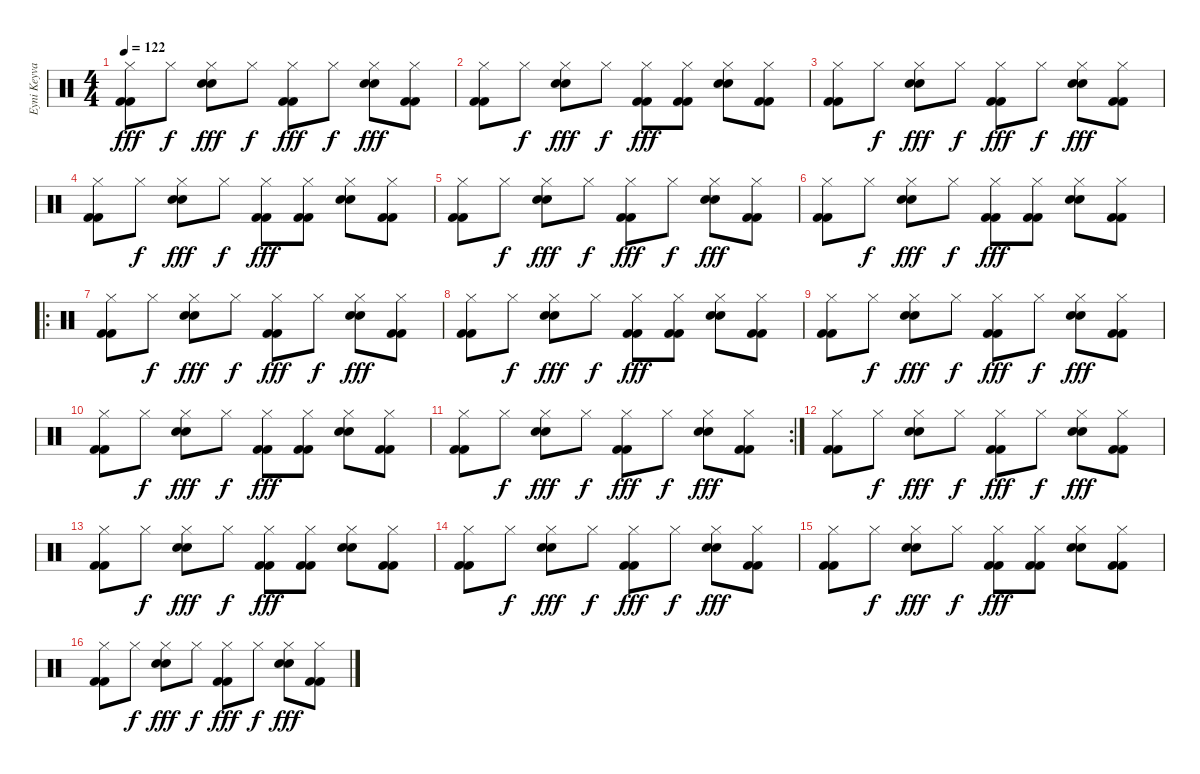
\track ("Eyni Keyvanshokoh" "Eyni Keyva") {instrument percussion}
\staff {score}
\articulation defaults
\ts (4 4)
\tempo 122
\clef neutral
\ks c
("Hi-Hat (closed)" "Kick (hit) 2" "Kick (hit) 2").8{dy fff} "Hi-Hat (closed)".8{dy f} ("Hi-Hat (closed)" "Electric Snare (hit)" "Electric Snare (hit)").8{dy fff} "Hi-Hat (closed)".8{dy f} ("Hi-Hat (closed)" "Kick (hit) 2" "Kick (hit) 2").8{dy fff} "Hi-Hat (closed)".8{dy f} ("Hi-Hat (closed)" "Electric Snare (hit)" "Electric Snare (hit)").8{dy fff} ("Hi-Hat (closed)" "Kick (hit) 2" "Kick (hit) 2").8 |
("Hi-Hat (closed)" "Kick (hit) 2" "Kick (hit) 2").8 "Hi-Hat (closed)".8{dy f} ("Hi-Hat (closed)" "Electric Snare (hit)" "Electric Snare (hit)").8{dy fff} "Hi-Hat (closed)".8{dy f} ("Hi-Hat (closed)" "Kick (hit) 2" "Kick (hit) 2").8{dy fff} ("Hi-Hat (closed)" "Kick (hit) 2" "Kick (hit) 2").8 ("Hi-Hat (closed)" "Electric Snare (hit)" "Electric Snare (hit)").8 ("Hi-Hat (closed)" "Kick (hit) 2" "Kick (hit) 2").8 |
("Hi-Hat (closed)" "Kick (hit) 2" "Kick (hit) 2").8 "Hi-Hat (closed)".8{dy f} ("Hi-Hat (closed)" "Electric Snare (hit)" "Electric Snare (hit)").8{dy fff} "Hi-Hat (closed)".8{dy f} ("Hi-Hat (closed)" "Kick (hit) 2" "Kick (hit) 2").8{dy fff} "Hi-Hat (closed)".8{dy f} ("Hi-Hat (closed)" "Electric Snare (hit)" "Electric Snare (hit)").8{dy fff} ("Hi-Hat (closed)" "Kick (hit) 2" "Kick (hit) 2").8 |
("Hi-Hat (closed)" "Kick (hit) 2" "Kick (hit) 2").8 "Hi-Hat (closed)".8{dy f} ("Hi-Hat (closed)" "Electric Snare (hit)" "Electric Snare (hit)").8{dy fff} "Hi-Hat (closed)".8{dy f} ("Hi-Hat (closed)" "Kick (hit) 2" "Kick (hit) 2").8{dy fff} ("Hi-Hat (closed)" "Kick (hit) 2" "Kick (hit) 2").8 ("Hi-Hat (closed)" "Electric Snare (hit)" "Electric Snare (hit)").8 ("Hi-Hat (closed)" "Kick (hit) 2" "Kick (hit) 2").8 |
("Hi-Hat (closed)" "Kick (hit) 2" "Kick (hit) 2").8 "Hi-Hat (closed)".8{dy f} ("Hi-Hat (closed)" "Electric Snare (hit)" "Electric Snare (hit)").8{dy fff} "Hi-Hat (closed)".8{dy f} ("Hi-Hat (closed)" "Kick (hit) 2" "Kick (hit) 2").8{dy fff} "Hi-Hat (closed)".8{dy f} ("Hi-Hat (closed)" "Electric Snare (hit)" "Electric Snare (hit)").8{dy fff} ("Hi-Hat (closed)" "Kick (hit) 2" "Kick (hit) 2").8 |
("Hi-Hat (closed)" "Kick (hit) 2" "Kick (hit) 2").8 "Hi-Hat (closed)".8{dy f} ("Hi-Hat (closed)" "Electric Snare (hit)" "Electric Snare (hit)").8{dy fff} "Hi-Hat (closed)".8{dy f} ("Hi-Hat (closed)" "Kick (hit) 2" "Kick (hit) 2").8{dy fff} ("Hi-Hat (closed)" "Kick (hit) 2" "Kick (hit) 2").8 ("Hi-Hat (closed)" "Electric Snare (hit)" "Electric Snare (hit)").8 ("Hi-Hat (closed)" "Kick (hit) 2" "Kick (hit) 2").8 |
\ro
("Hi-Hat (closed)" "Kick (hit) 2" "Kick (hit) 2").8 "Hi-Hat (closed)".8{dy f} ("Hi-Hat (closed)" "Electric Snare (hit)" "Electric Snare (hit)").8{dy fff} "Hi-Hat (closed)".8{dy f} ("Hi-Hat (closed)" "Kick (hit) 2" "Kick (hit) 2").8{dy fff} "Hi-Hat (closed)".8{dy f} ("Hi-Hat (closed)" "Electric Snare (hit)" "Electric Snare (hit)").8{dy fff} ("Hi-Hat (closed)" "Kick (hit) 2" "Kick (hit) 2").8 |
("Hi-Hat (closed)" "Kick (hit) 2" "Kick (hit) 2").8 "Hi-Hat (closed)".8{dy f} ("Hi-Hat (closed)" "Electric Snare (hit)" "Electric Snare (hit)").8{dy fff} "Hi-Hat (closed)".8{dy f} ("Hi-Hat (closed)" "Kick (hit) 2" "Kick (hit) 2").8{dy fff} ("Hi-Hat (closed)" "Kick (hit) 2" "Kick (hit) 2").8 ("Hi-Hat (closed)" "Electric Snare (hit)" "Electric Snare (hit)").8 ("Hi-Hat (closed)" "Kick (hit) 2" "Kick (hit) 2").8 |
("Hi-Hat (closed)" "Kick (hit) 2" "Kick (hit) 2").8 "Hi-Hat (closed)".8{dy f} ("Hi-Hat (closed)" "Electric Snare (hit)" "Electric Snare (hit)").8{dy fff} "Hi-Hat (closed)".8{dy f} ("Hi-Hat (closed)" "Kick (hit) 2" "Kick (hit) 2").8{dy fff} "Hi-Hat (closed)".8{dy f} ("Hi-Hat (closed)" "Electric Snare (hit)" "Electric Snare (hit)").8{dy fff} ("Hi-Hat (closed)" "Kick (hit) 2" "Kick (hit) 2").8 |
("Hi-Hat (closed)" "Kick (hit) 2" "Kick (hit) 2").8 "Hi-Hat (closed)".8{dy f} ("Hi-Hat (closed)" "Electric Snare (hit)" "Electric Snare (hit)").8{dy fff} "Hi-Hat (closed)".8{dy f} ("Hi-Hat (closed)" "Kick (hit) 2" "Kick (hit) 2").8{dy fff} ("Hi-Hat (closed)" "Kick (hit) 2" "Kick (hit) 2").8 ("Hi-Hat (closed)" "Electric Snare (hit)" "Electric Snare (hit)").8 ("Hi-Hat (closed)" "Kick (hit) 2" "Kick (hit) 2").8 |
\rc 2
("Hi-Hat (closed)" "Kick (hit) 2" "Kick (hit) 2").8 "Hi-Hat (closed)".8{dy f} ("Hi-Hat (closed)" "Electric Snare (hit)" "Electric Snare (hit)").8{dy fff} "Hi-Hat (closed)".8{dy f} ("Hi-Hat (closed)" "Kick (hit) 2" "Kick (hit) 2").8{dy fff} "Hi-Hat (closed)".8{dy f} ("Hi-Hat (closed)" "Electric Snare (hit)" "Electric Snare (hit)").8{dy fff} ("Hi-Hat (closed)" "Kick (hit) 2" "Kick (hit) 2").8 |
("Hi-Hat (closed)" "Kick (hit) 2" "Kick (hit) 2").8 "Hi-Hat (closed)".8{dy f} ("Hi-Hat (closed)" "Electric Snare (hit)" "Electric Snare (hit)").8{dy fff} "Hi-Hat (closed)".8{dy f} ("Hi-Hat (closed)" "Kick (hit) 2" "Kick (hit) 2").8{dy fff} "Hi-Hat (closed)".8{dy f} ("Hi-Hat (closed)" "Electric Snare (hit)" "Electric Snare (hit)").8{dy fff} ("Hi-Hat (closed)" "Kick (hit) 2" "Kick (hit) 2").8 |
("Hi-Hat (closed)" "Kick (hit) 2" "Kick (hit) 2").8 "Hi-Hat (closed)".8{dy f} ("Hi-Hat (closed)" "Electric Snare (hit)" "Electric Snare (hit)").8{dy fff} "Hi-Hat (closed)".8{dy f} ("Hi-Hat (closed)" "Kick (hit) 2" "Kick (hit) 2").8{dy fff} ("Hi-Hat (closed)" "Kick (hit) 2" "Kick (hit) 2").8 ("Hi-Hat (closed)" "Electric Snare (hit)" "Electric Snare (hit)").8 ("Hi-Hat (closed)" "Kick (hit) 2" "Kick (hit) 2").8 |
("Hi-Hat (closed)" "Kick (hit) 2" "Kick (hit) 2").8 "Hi-Hat (closed)".8{dy f} ("Hi-Hat (closed)" "Electric Snare (hit)" "Electric Snare (hit)").8{dy fff} "Hi-Hat (closed)".8{dy f} ("Hi-Hat (closed)" "Kick (hit) 2" "Kick (hit) 2").8{dy fff} "Hi-Hat (closed)".8{dy f} ("Hi-Hat (closed)" "Electric Snare (hit)" "Electric Snare (hit)").8{dy fff} ("Hi-Hat (closed)" "Kick (hit) 2" "Kick (hit) 2").8 |
("Hi-Hat (closed)" "Kick (hit) 2" "Kick (hit) 2").8 "Hi-Hat (closed)".8{dy f} ("Hi-Hat (closed)" "Electric Snare (hit)" "Electric Snare (hit)").8{dy fff} "Hi-Hat (closed)".8{dy f} ("Hi-Hat (closed)" "Kick (hit) 2" "Kick (hit) 2").8{dy fff} ("Hi-Hat (closed)" "Kick (hit) 2" "Kick (hit) 2").8 ("Hi-Hat (closed)" "Electric Snare (hit)" "Electric Snare (hit)").8 ("Hi-Hat (closed)" "Kick (hit) 2" "Kick (hit) 2").8 |
("Hi-Hat (closed)" "Kick (hit) 2" "Kick (hit) 2").8 "Hi-Hat (closed)".8{dy f} ("Hi-Hat (closed)" "Electric Snare (hit)" "Electric Snare (hit)").8{dy fff} "Hi-Hat (closed)".8{dy f} ("Hi-Hat (closed)" "Kick (hit) 2" "Kick (hit) 2").8{dy fff} "Hi-Hat (closed)".8{dy f} ("Hi-Hat (closed)" "Electric Snare (hit)" "Electric Snare (hit)").8{dy fff} ("Hi-Hat (closed)" "Kick (hit) 2" "Kick (hit) 2").8
